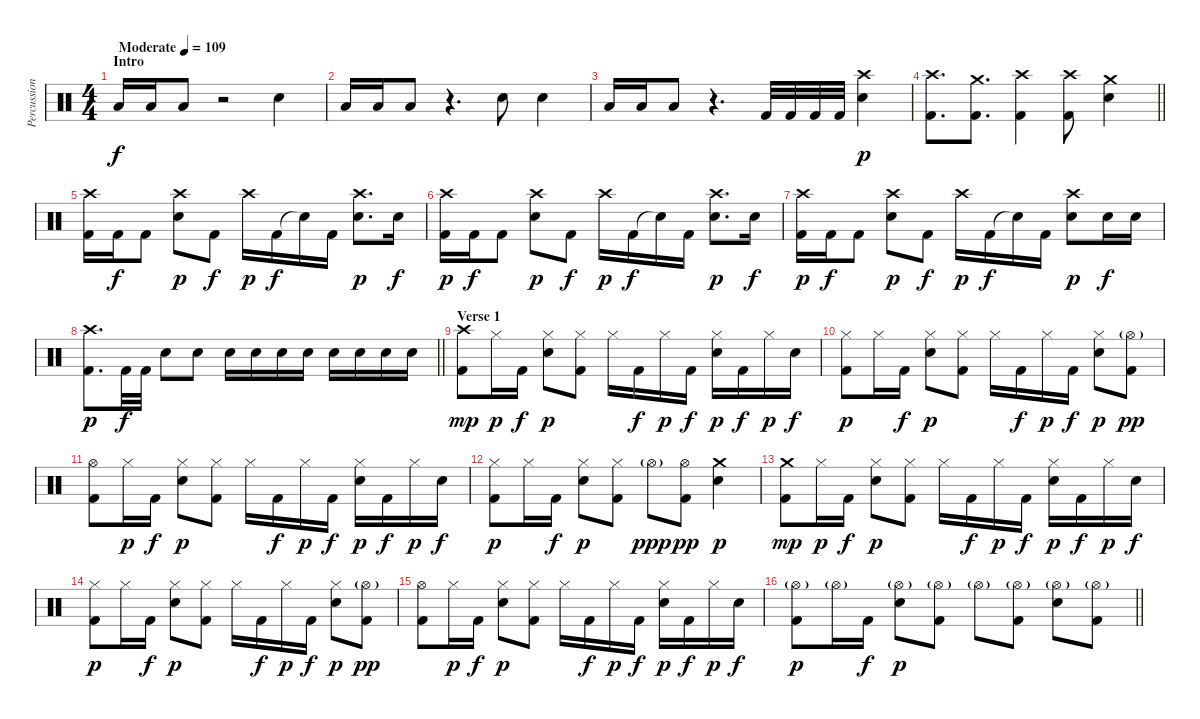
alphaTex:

\track ("Percussions" "Percussion") {instrument percussion}
\staff {score}
\articulation defaults
\ts (4 4)
\section ("" "Intro")
\tempo (109 "Moderate")
\clef neutral
\ks c "Low Tom (hit)".16{dy f} "Low Tom (hit)".16 "Low Tom (hit)".8
r.2 "Electric Snare (hit)".4 |
"Low Tom (hit)".16 "Low Tom (hit)".16 "Low Tom (hit)".8 r.4{d} "Electric Snare (hit)".8 "Electric Snare (hit)".4 |
"Low Tom (hit)".16 "Low Tom (hit)".16 "Low Tom (hit)".8 r.4{d} "Kick (hit) 2".32 "Kick (hit) 2".32 "Kick (hit) 2".32 "Kick (hit) 2".32 ("Crash high (hit)" "Electric Snare (hit)").4{dy p} |
\barLineRight lightlight
("Crash high (hit)" "Kick (hit) 2").8{d} ("Crash medium (hit)" "Kick (hit) 2").8{d} ("Crash high (hit)" "Kick (hit) 2").4 ("Crash high (hit)" "Kick (hit) 2").8 ("Crash medium (hit)" "Electric Snare (hit)").4 |
("Crash high (hit)" "Kick (hit) 2").16 "Kick (hit) 2".16{dy f} "Kick (hit) 2".8 ("Crash high (hit)" "Electric Snare (hit)").8{dy p} "Kick (hit) 2".8{dy f} "Crash high (hit)".16{dy p} "Kick (hit) 2".16{dy f} "Snare (hit)"{t}.16 "Kick (hit) 2".16 ("Crash high (hit)" "Electric Snare (hit)").8{d dy p} "Electric Snare (hit)".16{dy f} |
("Crash high (hit)" "Kick (hit) 2").16{dy p} "Kick (hit) 2".16{dy f} "Kick (hit) 2".8 ("Crash high (hit)" "Electric Snare (hit)").8{dy p} "Kick (hit) 2".8{dy f} "Crash high (hit)".16{dy p} "Kick (hit) 2".16{dy f} "Snare (hit)"{t}.16 "Kick (hit) 2".16 ("Crash high (hit)" "Electric Snare (hit)").8{d dy p} "Electric Snare (hit)".16{dy f} |
("Crash high (hit)" "Kick (hit) 2").16{dy p} "Kick (hit) 2".16{dy f} "Kick (hit) 2".8 ("Crash high (hit)" "Electric Snare (hit)").8{dy p} "Kick (hit) 2".8{dy f} "Crash high (hit)".16{dy p} "Kick (hit) 2".16{dy f} "Snare (hit)"{t}.16 "Kick (hit) 2".16 ("Crash high (hit)" "Electric Snare (hit)").8{dy p} "Electric Snare (hit)".16{dy f} "Electric Snare (hit)".16 |
\barLineRight lightlight
("Crash high (hit)" "Kick (hit) 2").8{d dy p} "Kick (hit) 2".32{dy f} "Kick (hit) 2".32 "Electric Snare (hit)".8 "Electric Snare (hit)".8 "Electric Snare (hit)".16 "Electric Snare (hit)".16 "Electric Snare (hit)".16 "Electric Snare (hit)".16 "Electric Snare (hit)".16 "Electric Snare (hit)".16 "Electric Snare (hit)".16 "Electric Snare (hit)".16 |
\section ("" "Verse 1")
("Crash high (hit)" "Kick (hit) 2").8{dy mp} "Hi-Hat (closed)".16{dy p} "Kick (hit) 2".16{dy f} ("Hi-Hat (closed)" "Electric Snare (hit)").8{dy p} ("Hi-Hat (closed)" "Kick (hit) 2").8 "Hi-Hat (closed)".16 "Kick (hit) 2".16{dy f} "Hi-Hat (closed)".16{dy p} "Kick (hit) 2".16{dy f} ("Hi-Hat (closed)" "Electric Snare (hit)").16{dy p} "Kick (hit) 2".16{dy f} "Hi-Hat (closed)".16{dy p} "Electric Snare (hit)".16{dy f} |
("Hi-Hat (closed)" "Kick (hit) 2").8{dy p} "Hi-Hat (closed)".16 "Kick (hit) 2".16{dy f} ("Hi-Hat (closed)" "Electric Snare (hit)").8{dy p} ("Hi-Hat (closed)" "Kick (hit) 2").8 "Hi-Hat (closed)".16 "Kick (hit) 2".16{dy f} "Hi-Hat (closed)".16{dy p} "Kick (hit) 2".16{dy f} ("Hi-Hat (closed)" "Electric Snare (hit)").8{dy p} ("Hi-Hat (open)"{g} "Kick (hit) 2").8{dy pp} |
("Hi-Hat (open)" "Kick (hit) 2").8 "Hi-Hat (closed)".16{dy p} "Kick (hit) 2".16{dy f} ("Hi-Hat (closed)" "Electric Snare (hit)").8{dy p} ("Hi-Hat (closed)" "Kick (hit) 2").8 "Hi-Hat (closed)".16 "Kick (hit) 2".16{dy f} "Hi-Hat (closed)".16{dy p} "Kick (hit) 2".16{dy f} ("Hi-Hat (closed)" "Electric Snare (hit)").16{dy p} "Kick (hit) 2".16{dy f} "Hi-Hat (closed)".16{dy p} "Electric Snare (hit)".16{dy f} |
("Hi-Hat (closed)" "Kick (hit) 2").8{dy p} "Hi-Hat (closed)".16 "Kick (hit) 2".16{dy f} ("Hi-Hat (closed)" "Electric Snare (hit)").8{dy p} ("Hi-Hat (closed)" "Kick (hit) 2").8 "Hi-Hat (open)"{g}.8{dy ppp} ("Hi-Hat (open)" "Kick (hit) 2").8{dy pp} ("Crash medium (hit)" "Electric Snare (hit)").4{dy p} |
("Crash medium (hit)" "Kick (hit) 2").8{dy mp} "Hi-Hat (closed)".16{dy p} "Kick (hit) 2".16{dy f} ("Hi-Hat (closed)" "Electric Snare (hit)").8{dy p} ("Hi-Hat (closed)" "Kick (hit) 2").8 "Hi-Hat (closed)".16 "Kick (hit) 2".16{dy f} "Hi-Hat (closed)".16{dy p} "Kick (hit) 2".16{dy f} ("Hi-Hat (closed)" "Electric Snare (hit)").16{dy p} "Kick (hit) 2".16{dy f} "Hi-Hat (closed)".16{dy p} "Electric Snare (hit)".16{dy f} |
("Hi-Hat (closed)" "Kick (hit) 2").8{dy p} "Hi-Hat (closed)".16 "Kick (hit) 2".16{dy f} ("Hi-Hat (closed)" "Electric Snare (hit)").8{dy p} ("Hi-Hat (closed)" "Kick (hit) 2").8 "Hi-Hat (closed)".16 "Kick (hit) 2".16{dy f} "Hi-Hat (closed)".16{dy p} "Kick (hit) 2".16{dy f} ("Hi-Hat (closed)" "Electric Snare (hit)").8{dy p} ("Hi-Hat (open)"{g} "Kick (hit) 2").8{dy pp} |
("Hi-Hat (open)" "Kick (hit) 2").8 "Hi-Hat (closed)".16{dy p} "Kick (hit) 2".16{dy f} ("Hi-Hat (closed)" "Electric Snare (hit)").8{dy p} ("Hi-Hat (closed)" "Kick (hit) 2").8 "Hi-Hat (closed)".16 "Kick (hit) 2".16{dy f} "Hi-Hat (closed)".16{dy p} "Kick (hit) 2".16{dy f} ("Hi-Hat (closed)" "Electric Snare (hit)").16{dy p} "Kick (hit) 2".16{dy f} "Hi-Hat (closed)".16{dy p} "Electric Snare (hit)".16{dy f} |
\barLineRight lightlight
("Hi-Hat (open)"{g} "Kick (hit) 2").8{dy p} "Hi-Hat (open)"{g}.16 "Kick (hit) 2".16{dy f} ("Hi-Hat (open)"{g} "Electric Snare (hit)").8{dy p} ("Hi-Hat (open)"{g} "Kick (hit) 2").8 "Hi-Hat (open)"{g}.8 ("Hi-Hat (open)"{g} "Kick (hit) 2").8 ("Hi-Hat (open)"{g} "Electric Snare (hit)").8 ("Hi-Hat (open)"{g} "Kick (hit) 2").8
